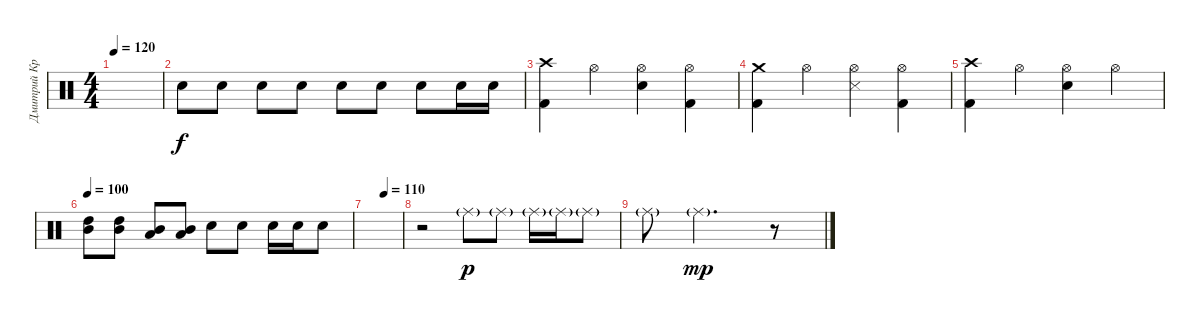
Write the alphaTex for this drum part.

\track ("Дмитрий Кривенков       (Ударные)" "Дмитрий Кр") {instrument percussion}
\staff {score}
\articulation defaults
\ts (4 4)
\tempo 120
\clef neutral
\ks c
|
"Electric Snare (hit)".8 "Electric Snare (hit)".8 "Electric Snare (hit)".8 "Electric Snare (hit)".8 "Electric Snare (hit)".8 "Electric Snare (hit)".8 "Electric Snare (hit)".8 "Electric Snare (hit)".16 "Electric Snare (hit)".16 |
("Crash high (hit)" "Kick (hit) 2").4 "Hi-Hat (open)".4 ("Hi-Hat (open)" "Electric Snare (hit)").4 ("Hi-Hat (open)" "Kick (hit) 2").4 |
("Crash medium (hit)" "Kick (hit) 2").4 "Hi-Hat (open)".4 ("Snare (side stick) 3" "Hi-Hat (open)").4 ("Hi-Hat (open)" "Kick (hit) 2").4 |
("Crash high (hit)" "Kick (hit) 2").4 "Hi-Hat (open)".4 ("Hi-Hat (open)" "Electric Snare (hit)").4 "Hi-Hat (open)".4 |
\tempo 100
("High Tom (hit)" "Mid Tom (hit)").8 ("High Tom (hit)" "Mid Tom (hit)").8 ("Mid Tom (hit)" "Low Tom (hit)").8 ("Mid Tom (hit)" "Low Tom (hit)").8 "Electric Snare (hit)".8 "Electric Snare (hit)".8 "Electric Snare (hit)".16 "Electric Snare (hit)".16 "Electric Snare (hit)".8 |
\tempo (110 0.5)
|
r.2 "Ride (middle)"{g}.8{dy p} "Ride (middle)"{g}.8 "Ride (middle)"{g}.16 "Ride (middle)"{g}.16 "Ride (middle)"{g}.8 |
"Ride (middle)"{g}.8 "Ride (middle)"{g}.2{d dy mp} r.8
